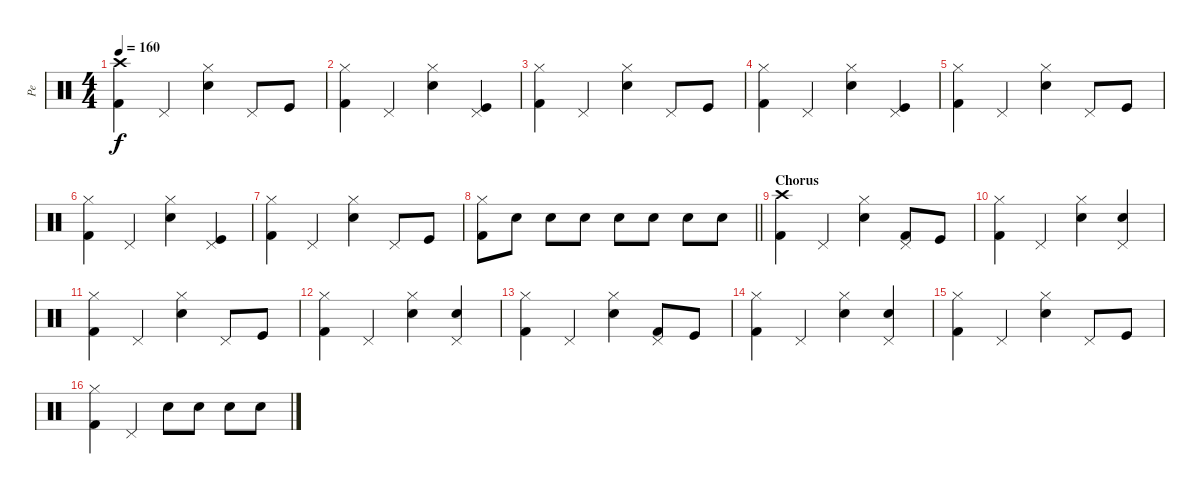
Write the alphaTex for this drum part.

\track ("Pe" "Pe") {instrument percussion}
\staff {score}
\articulation defaults
\ts (4 4)
\tempo 160
\clef neutral
\ks c
("Kick (hit) 2" "Crash high (hit)").4{dy f} "Pedal Hi-Hat (hit)".4 ("Electric Snare (hit)" "Hi-Hat (closed)").4 "Pedal Hi-Hat (hit)".8 "Kick (hit)".8 |
("Kick (hit) 2" "Hi-Hat (closed)").4 "Pedal Hi-Hat (hit)".4 ("Electric Snare (hit)" "Hi-Hat (closed)").4 ("Kick (hit)" "Pedal Hi-Hat (hit)").4 |
("Kick (hit) 2" "Hi-Hat (closed)").4 "Pedal Hi-Hat (hit)".4 ("Electric Snare (hit)" "Hi-Hat (closed)").4 "Pedal Hi-Hat (hit)".8 "Kick (hit)".8 |
("Kick (hit) 2" "Hi-Hat (closed)").4 "Pedal Hi-Hat (hit)".4 ("Electric Snare (hit)" "Hi-Hat (closed)").4 ("Kick (hit)" "Pedal Hi-Hat (hit)").4 |
("Kick (hit) 2" "Hi-Hat (closed)").4 "Pedal Hi-Hat (hit)".4 ("Electric Snare (hit)" "Hi-Hat (closed)").4 "Pedal Hi-Hat (hit)".8 "Kick (hit)".8 |
("Kick (hit) 2" "Hi-Hat (closed)").4 "Pedal Hi-Hat (hit)".4 ("Electric Snare (hit)" "Hi-Hat (closed)").4 ("Kick (hit)" "Pedal Hi-Hat (hit)").4 |
("Kick (hit) 2" "Hi-Hat (closed)").4 "Pedal Hi-Hat (hit)".4 ("Electric Snare (hit)" "Hi-Hat (closed)").4 "Pedal Hi-Hat (hit)".8 "Kick (hit)".8 |
\barLineRight lightlight
("Kick (hit) 2" "Hi-Hat (closed)").8 "Electric Snare (hit)".8 "Electric Snare (hit)".8 "Electric Snare (hit)".8 "Electric Snare (hit)".8 "Electric Snare (hit)".8 "Electric Snare (hit)".8 "Electric Snare (hit)".8 |
\section ("" "Chorus")
("Kick (hit) 2" "Crash high (hit)").4 "Pedal Hi-Hat (hit)".4 ("Electric Snare (hit)" "Hi-Hat (closed)").4 ("Kick (hit) 2" "Pedal Hi-Hat (hit)").8 "Kick (hit)".8 |
("Kick (hit) 2" "Hi-Hat (closed)").4 "Pedal Hi-Hat (hit)".4 ("Electric Snare (hit)" "Hi-Hat (closed)").4 ("Electric Snare (hit)" "Pedal Hi-Hat (hit)").4 |
("Kick (hit) 2" "Hi-Hat (closed)").4 "Pedal Hi-Hat (hit)".4 ("Electric Snare (hit)" "Hi-Hat (closed)").4 "Pedal Hi-Hat (hit)".8 "Kick (hit)".8 |
("Kick (hit) 2" "Hi-Hat (closed)").4 "Pedal Hi-Hat (hit)".4 ("Electric Snare (hit)" "Hi-Hat (closed)").4 ("Electric Snare (hit)" "Pedal Hi-Hat (hit)").4 |
("Kick (hit) 2" "Hi-Hat (closed)").4 "Pedal Hi-Hat (hit)".4 ("Electric Snare (hit)" "Hi-Hat (closed)").4 ("Kick (hit) 2" "Pedal Hi-Hat (hit)").8 "Kick (hit)".8 |
("Kick (hit) 2" "Hi-Hat (closed)").4 "Pedal Hi-Hat (hit)".4 ("Electric Snare (hit)" "Hi-Hat (closed)").4 ("Electric Snare (hit)" "Pedal Hi-Hat (hit)").4 |
("Kick (hit) 2" "Hi-Hat (closed)").4 "Pedal Hi-Hat (hit)".4 ("Electric Snare (hit)" "Hi-Hat (closed)").4 "Pedal Hi-Hat (hit)".8 "Kick (hit)".8 |
("Kick (hit) 2" "Hi-Hat (closed)").4 "Pedal Hi-Hat (hit)".4 "Electric Snare (hit)".8 "Electric Snare (hit)".8 "Electric Snare (hit)".8 "Electric Snare (hit)".8
